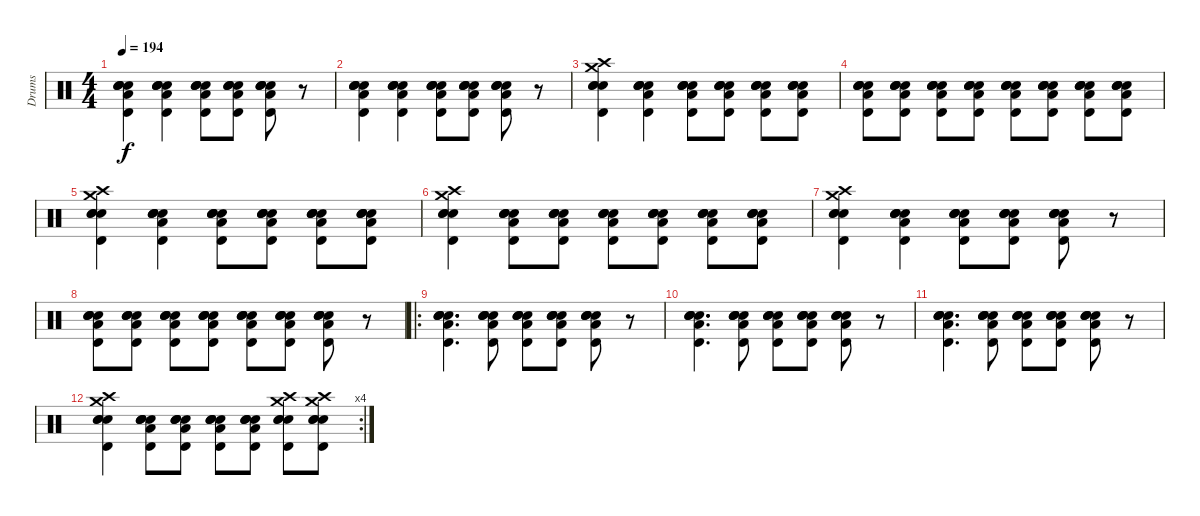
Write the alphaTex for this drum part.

\track ("Drums" "Drums") {instrument percussion}
\staff {score}
\articulation defaults
\ts (4 4)
\tempo 194
\clef neutral
\ks c
("Snare (hit) 2" "Snare (hit) 2" "Timbale high (hit)" "Snare (hit) 2" "Snare (hit) 2" "Low Floor Tom (hit)").4{dy f} ("Snare (hit) 2" "Snare (hit) 2" "Timbale high (hit)" "Snare (hit) 2" "Snare (hit) 2" "Low Floor Tom (hit)").4 ("Snare (hit) 2" "Snare (hit) 2" "Timbale high (hit)" "Snare (hit) 2" "Snare (hit) 2" "Low Floor Tom (hit)").8 ("Snare (hit) 2" "Snare (hit) 2" "Timbale high (hit)" "Snare (hit) 2" "Snare (hit) 2" "Low Floor Tom (hit)").8 ("Snare (hit) 2" "Snare (hit) 2" "Timbale high (hit)" "Snare (hit) 2" "Snare (hit) 2" "Low Floor Tom (hit)").8 r.8 |
("Snare (hit) 2" "Snare (hit) 2" "Timbale high (hit)" "Snare (hit) 2" "Snare (hit) 2" "Low Floor Tom (hit)").4 ("Snare (hit) 2" "Snare (hit) 2" "Timbale high (hit)" "Snare (hit) 2" "Snare (hit) 2" "Low Floor Tom (hit)").4 ("Snare (hit) 2" "Snare (hit) 2" "Timbale high (hit)" "Snare (hit) 2" "Snare (hit) 2" "Low Floor Tom (hit)").8 ("Snare (hit) 2" "Snare (hit) 2" "Timbale high (hit)" "Snare (hit) 2" "Snare (hit) 2" "Low Floor Tom (hit)").8 ("Snare (hit) 2" "Snare (hit) 2" "Timbale high (hit)" "Snare (hit) 2" "Snare (hit) 2" "Low Floor Tom (hit)").8 r.8 |
("Snare (hit) 2" "Snare (hit) 2" "Timbale high (hit)" "Snare (hit) 2" "Crash medium (hit)" "Crash high (hit)").4 ("Snare (hit) 2" "Snare (hit) 2" "Timbale high (hit)" "Snare (hit) 2" "Snare (hit) 2" "Low Floor Tom (hit)").4 ("Snare (hit) 2" "Snare (hit) 2" "Timbale high (hit)" "Snare (hit) 2" "Snare (hit) 2" "Low Floor Tom (hit)").8 ("Snare (hit) 2" "Snare (hit) 2" "Timbale high (hit)" "Snare (hit) 2" "Snare (hit) 2" "Low Floor Tom (hit)").8 ("Snare (hit) 2" "Snare (hit) 2" "Timbale high (hit)" "Snare (hit) 2" "Snare (hit) 2" "Low Floor Tom (hit)").8 ("Snare (hit) 2" "Snare (hit) 2" "Timbale high (hit)" "Snare (hit) 2" "Snare (hit) 2" "Low Floor Tom (hit)").8 |
("Snare (hit) 2" "Snare (hit) 2" "Timbale high (hit)" "Snare (hit) 2" "Snare (hit) 2" "Low Floor Tom (hit)").8 ("Snare (hit) 2" "Snare (hit) 2" "Timbale high (hit)" "Snare (hit) 2" "Snare (hit) 2" "Low Floor Tom (hit)").8 ("Snare (hit) 2" "Snare (hit) 2" "Timbale high (hit)" "Snare (hit) 2" "Snare (hit) 2" "Low Floor Tom (hit)").8 ("Snare (hit) 2" "Snare (hit) 2" "Timbale high (hit)" "Snare (hit) 2" "Snare (hit) 2" "Low Floor Tom (hit)").8 ("Snare (hit) 2" "Snare (hit) 2" "Timbale high (hit)" "Snare (hit) 2" "Snare (hit) 2" "Low Floor Tom (hit)").8 ("Snare (hit) 2" "Snare (hit) 2" "Timbale high (hit)" "Snare (hit) 2" "Snare (hit) 2" "Low Floor Tom (hit)").8 ("Snare (hit) 2" "Snare (hit) 2" "Timbale high (hit)" "Snare (hit) 2" "Snare (hit) 2" "Low Floor Tom (hit)").8 ("Snare (hit) 2" "Snare (hit) 2" "Timbale high (hit)" "Snare (hit) 2" "Snare (hit) 2" "Low Floor Tom (hit)").8 |
("Snare (hit) 2" "Snare (hit) 2" "Timbale high (hit)" "Snare (hit) 2" "Crash medium (hit)" "Crash high (hit)").4 ("Snare (hit) 2" "Snare (hit) 2" "Timbale high (hit)" "Snare (hit) 2" "Snare (hit) 2" "Low Floor Tom (hit)").4 ("Snare (hit) 2" "Snare (hit) 2" "Timbale high (hit)" "Snare (hit) 2" "Snare (hit) 2" "Low Floor Tom (hit)").8 ("Snare (hit) 2" "Snare (hit) 2" "Timbale high (hit)" "Snare (hit) 2" "Snare (hit) 2" "Low Floor Tom (hit)").8 ("Snare (hit) 2" "Snare (hit) 2" "Timbale high (hit)" "Snare (hit) 2" "Snare (hit) 2" "Low Floor Tom (hit)").8 ("Snare (hit) 2" "Snare (hit) 2" "Timbale high (hit)" "Snare (hit) 2" "Snare (hit) 2" "Low Floor Tom (hit)").8 |
("Snare (hit) 2" "Snare (hit) 2" "Timbale high (hit)" "Snare (hit) 2" "Crash medium (hit)" "Crash high (hit)").4 ("Snare (hit) 2" "Snare (hit) 2" "Timbale high (hit)" "Snare (hit) 2" "Snare (hit) 2" "Low Floor Tom (hit)").8 ("Snare (hit) 2" "Snare (hit) 2" "Timbale high (hit)" "Snare (hit) 2" "Snare (hit) 2" "Low Floor Tom (hit)").8 ("Snare (hit) 2" "Snare (hit) 2" "Timbale high (hit)" "Snare (hit) 2" "Snare (hit) 2" "Low Floor Tom (hit)").8 ("Snare (hit) 2" "Snare (hit) 2" "Timbale high (hit)" "Snare (hit) 2" "Snare (hit) 2" "Low Floor Tom (hit)").8 ("Snare (hit) 2" "Snare (hit) 2" "Timbale high (hit)" "Snare (hit) 2" "Snare (hit) 2" "Low Floor Tom (hit)").8 ("Snare (hit) 2" "Snare (hit) 2" "Timbale high (hit)" "Snare (hit) 2" "Snare (hit) 2" "Low Floor Tom (hit)").8 |
("Snare (hit) 2" "Snare (hit) 2" "Timbale high (hit)" "Snare (hit) 2" "Crash medium (hit)" "Crash high (hit)").4 ("Snare (hit) 2" "Snare (hit) 2" "Timbale high (hit)" "Snare (hit) 2" "Snare (hit) 2" "Low Floor Tom (hit)").4 ("Snare (hit) 2" "Snare (hit) 2" "Timbale high (hit)" "Snare (hit) 2" "Snare (hit) 2" "Low Floor Tom (hit)").8 ("Snare (hit) 2" "Snare (hit) 2" "Timbale high (hit)" "Snare (hit) 2" "Snare (hit) 2" "Low Floor Tom (hit)").8 ("Snare (hit) 2" "Snare (hit) 2" "Timbale high (hit)" "Snare (hit) 2" "Snare (hit) 2" "Low Floor Tom (hit)").8 r.8 |
("Snare (hit) 2" "Snare (hit) 2" "Timbale high (hit)" "Snare (hit) 2" "Snare (hit) 2" "Low Floor Tom (hit)").8 ("Snare (hit) 2" "Snare (hit) 2" "Timbale high (hit)" "Snare (hit) 2" "Snare (hit) 2" "Low Floor Tom (hit)").8 ("Snare (hit) 2" "Snare (hit) 2" "Timbale high (hit)" "Snare (hit) 2" "Snare (hit) 2" "Low Floor Tom (hit)").8 ("Snare (hit) 2" "Snare (hit) 2" "Timbale high (hit)" "Snare (hit) 2" "Snare (hit) 2" "Low Floor Tom (hit)").8 ("Snare (hit) 2" "Snare (hit) 2" "Timbale high (hit)" "Snare (hit) 2" "Snare (hit) 2" "Low Floor Tom (hit)").8 ("Snare (hit) 2" "Snare (hit) 2" "Timbale high (hit)" "Snare (hit) 2" "Snare (hit) 2" "Low Floor Tom (hit)").8 ("Snare (hit) 2" "Snare (hit) 2" "Timbale high (hit)" "Snare (hit) 2" "Snare (hit) 2" "Low Floor Tom (hit)").8 r.8 |
\ro
("Snare (hit) 2" "Snare (hit) 2" "Timbale high (hit)" "Snare (hit) 2" "Snare (hit) 2" "Low Floor Tom (hit)").4{d} ("Snare (hit) 2" "Snare (hit) 2" "Timbale high (hit)" "Snare (hit) 2" "Snare (hit) 2" "Low Floor Tom (hit)").8 ("Snare (hit) 2" "Snare (hit) 2" "Timbale high (hit)" "Snare (hit) 2" "Snare (hit) 2" "Low Floor Tom (hit)").8 ("Snare (hit) 2" "Snare (hit) 2" "Timbale high (hit)" "Snare (hit) 2" "Snare (hit) 2" "Low Floor Tom (hit)").8 ("Snare (hit) 2" "Snare (hit) 2" "Timbale high (hit)" "Snare (hit) 2" "Snare (hit) 2" "Low Floor Tom (hit)").8 r.8 |
("Snare (hit) 2" "Snare (hit) 2" "Timbale high (hit)" "Snare (hit) 2" "Snare (hit) 2" "Low Floor Tom (hit)").4{d} ("Snare (hit) 2" "Snare (hit) 2" "Timbale high (hit)" "Snare (hit) 2" "Snare (hit) 2" "Low Floor Tom (hit)").8 ("Snare (hit) 2" "Snare (hit) 2" "Timbale high (hit)" "Snare (hit) 2" "Snare (hit) 2" "Low Floor Tom (hit)").8 ("Snare (hit) 2" "Snare (hit) 2" "Timbale high (hit)" "Snare (hit) 2" "Snare (hit) 2" "Low Floor Tom (hit)").8 ("Snare (hit) 2" "Snare (hit) 2" "Timbale high (hit)" "Snare (hit) 2" "Snare (hit) 2" "Low Floor Tom (hit)").8 r.8 |
("Snare (hit) 2" "Snare (hit) 2" "Timbale high (hit)" "Snare (hit) 2" "Snare (hit) 2" "Low Floor Tom (hit)").4{d} ("Snare (hit) 2" "Snare (hit) 2" "Timbale high (hit)" "Snare (hit) 2" "Snare (hit) 2" "Low Floor Tom (hit)").8 ("Snare (hit) 2" "Snare (hit) 2" "Timbale high (hit)" "Snare (hit) 2" "Snare (hit) 2" "Low Floor Tom (hit)").8 ("Snare (hit) 2" "Snare (hit) 2" "Timbale high (hit)" "Snare (hit) 2" "Snare (hit) 2" "Low Floor Tom (hit)").8 ("Snare (hit) 2" "Snare (hit) 2" "Timbale high (hit)" "Snare (hit) 2" "Snare (hit) 2" "Low Floor Tom (hit)").8 r.8 |
\rc 4
("Snare (hit) 2" "Snare (hit) 2" "Timbale high (hit)" "Snare (hit) 2" "Crash medium (hit)" "Crash high (hit)").4 ("Snare (hit) 2" "Snare (hit) 2" "Timbale high (hit)" "Snare (hit) 2" "Snare (hit) 2" "Low Floor Tom (hit)").8 ("Snare (hit) 2" "Snare (hit) 2" "Timbale high (hit)" "Snare (hit) 2" "Snare (hit) 2" "Low Floor Tom (hit)").8 ("Snare (hit) 2" "Snare (hit) 2" "Timbale high (hit)" "Snare (hit) 2" "Snare (hit) 2" "Low Floor Tom (hit)").8 ("Snare (hit) 2" "Snare (hit) 2" "Timbale high (hit)" "Snare (hit) 2" "Snare (hit) 2" "Low Floor Tom (hit)").8 ("Snare (hit) 2" "Snare (hit) 2" "Timbale high (hit)" "Snare (hit) 2" "Crash medium (hit)" "Crash high (hit)").8 ("Snare (hit) 2" "Snare (hit) 2" "Timbale high (hit)" "Snare (hit) 2" "Crash medium (hit)" "Crash high (hit)").8
